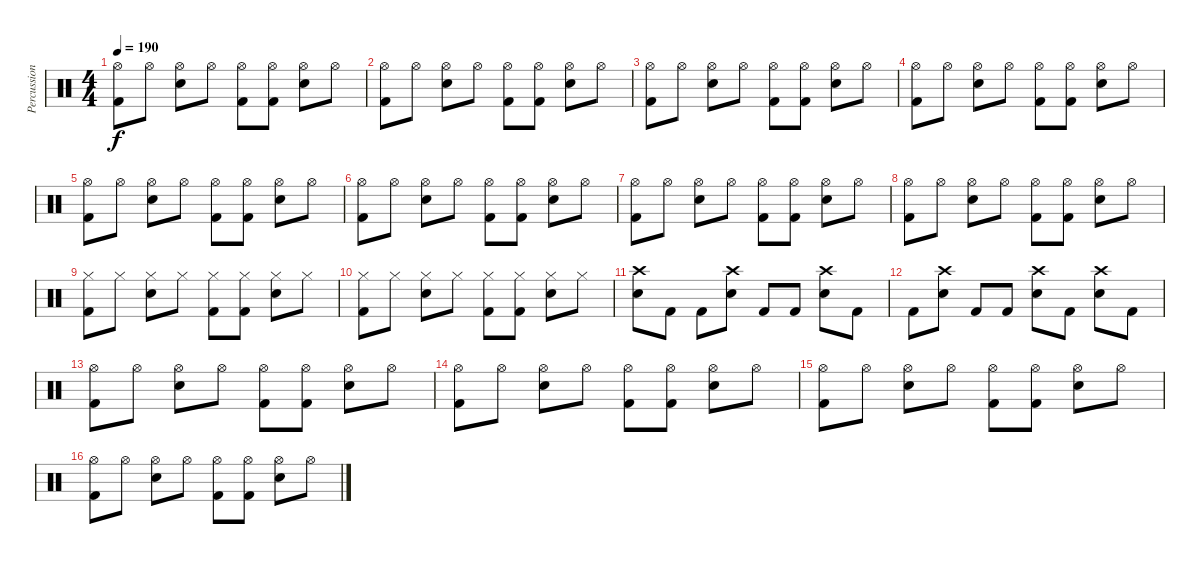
\track ("Percussion" "Percussion") {instrument percussion}
\staff {score}
\articulation defaults
\ts (4 4)
\tempo 190
\clef neutral
\ks c
("Hi-Hat (open)" "Kick (hit) 2").8{dy f} "Hi-Hat (open)".8 ("Hi-Hat (open)" "Snare (hit) 2").8 "Hi-Hat (open)".8 ("Hi-Hat (open)" "Kick (hit) 2").8 ("Hi-Hat (open)" "Kick (hit) 2").8 ("Hi-Hat (open)" "Snare (hit) 2").8 "Hi-Hat (open)".8 |
("Hi-Hat (open)" "Kick (hit) 2").8 "Hi-Hat (open)".8 ("Hi-Hat (open)" "Snare (hit) 2").8 "Hi-Hat (open)".8 ("Hi-Hat (open)" "Kick (hit) 2").8 ("Hi-Hat (open)" "Kick (hit) 2").8 ("Hi-Hat (open)" "Snare (hit) 2").8 "Hi-Hat (open)".8 |
("Hi-Hat (open)" "Kick (hit) 2").8 "Hi-Hat (open)".8 ("Hi-Hat (open)" "Snare (hit) 2").8 "Hi-Hat (open)".8 ("Hi-Hat (open)" "Kick (hit) 2").8 ("Hi-Hat (open)" "Kick (hit) 2").8 ("Hi-Hat (open)" "Snare (hit) 2").8 "Hi-Hat (open)".8 |
("Hi-Hat (open)" "Kick (hit) 2").8 "Hi-Hat (open)".8 ("Hi-Hat (open)" "Snare (hit) 2").8 "Hi-Hat (open)".8 ("Hi-Hat (open)" "Kick (hit) 2").8 ("Hi-Hat (open)" "Kick (hit) 2").8 ("Hi-Hat (open)" "Snare (hit) 2").8 "Hi-Hat (open)".8 |
("Hi-Hat (open)" "Kick (hit) 2").8 "Hi-Hat (open)".8 ("Hi-Hat (open)" "Snare (hit) 2").8 "Hi-Hat (open)".8 ("Hi-Hat (open)" "Kick (hit) 2").8 ("Hi-Hat (open)" "Kick (hit) 2").8 ("Hi-Hat (open)" "Snare (hit) 2").8 "Hi-Hat (open)".8 |
("Hi-Hat (open)" "Kick (hit) 2").8 "Hi-Hat (open)".8 ("Hi-Hat (open)" "Snare (hit) 2").8 "Hi-Hat (open)".8 ("Hi-Hat (open)" "Kick (hit) 2").8 ("Hi-Hat (open)" "Kick (hit) 2").8 ("Hi-Hat (open)" "Snare (hit) 2").8 "Hi-Hat (open)".8 |
("Hi-Hat (open)" "Kick (hit) 2").8 "Hi-Hat (open)".8 ("Hi-Hat (open)" "Snare (hit) 2").8 "Hi-Hat (open)".8 ("Hi-Hat (open)" "Kick (hit) 2").8 ("Hi-Hat (open)" "Kick (hit) 2").8 ("Hi-Hat (open)" "Snare (hit) 2").8 "Hi-Hat (open)".8 |
("Hi-Hat (open)" "Kick (hit) 2").8 "Hi-Hat (open)".8 ("Hi-Hat (open)" "Snare (hit) 2").8 "Hi-Hat (open)".8 ("Hi-Hat (open)" "Kick (hit) 2").8 ("Hi-Hat (open)" "Kick (hit) 2").8 ("Hi-Hat (open)" "Snare (hit) 2").8 "Hi-Hat (open)".8 |
("Hi-Hat (closed)" "Kick (hit) 2").8 "Hi-Hat (closed)".8 ("Hi-Hat (closed)" "Snare (hit) 2").8 "Hi-Hat (closed)".8 ("Hi-Hat (closed)" "Kick (hit) 2").8 ("Hi-Hat (closed)" "Kick (hit) 2").8 ("Hi-Hat (closed)" "Snare (hit) 2").8 "Hi-Hat (closed)".8 |
("Hi-Hat (closed)" "Kick (hit) 2").8 "Hi-Hat (closed)".8 ("Hi-Hat (closed)" "Snare (hit) 2").8 "Hi-Hat (closed)".8 ("Hi-Hat (closed)" "Kick (hit) 2").8 ("Hi-Hat (closed)" "Kick (hit) 2").8 ("Hi-Hat (closed)" "Snare (hit) 2").8 "Hi-Hat (closed)".8 |
("Crash high (hit)" "Snare (hit) 2").8 "Kick (hit) 2".8 "Kick (hit) 2".8 ("Crash high (hit)" "Snare (hit) 2").8 "Kick (hit) 2".8 "Kick (hit) 2".8 ("Crash high (hit)" "Snare (hit) 2").8 "Kick (hit) 2".8 |
"Kick (hit) 2".8 ("Crash high (hit)" "Snare (hit) 2").8 "Kick (hit) 2".8 "Kick (hit) 2".8 ("Crash high (hit)" "Snare (hit) 2").8 "Kick (hit) 2".8 ("Crash high (hit)" "Snare (hit) 2").8 "Kick (hit) 2".8 |
("Hi-Hat (open)" "Kick (hit) 2").8 "Hi-Hat (open)".8 ("Hi-Hat (open)" "Snare (hit) 2").8 "Hi-Hat (open)".8 ("Hi-Hat (open)" "Kick (hit) 2").8 ("Hi-Hat (open)" "Kick (hit) 2").8 ("Hi-Hat (open)" "Snare (hit) 2").8 "Hi-Hat (open)".8 |
("Hi-Hat (open)" "Kick (hit) 2").8 "Hi-Hat (open)".8 ("Hi-Hat (open)" "Snare (hit) 2").8 "Hi-Hat (open)".8 ("Hi-Hat (open)" "Kick (hit) 2").8 ("Hi-Hat (open)" "Kick (hit) 2").8 ("Hi-Hat (open)" "Snare (hit) 2").8 "Hi-Hat (open)".8 |
("Hi-Hat (open)" "Kick (hit) 2").8 "Hi-Hat (open)".8 ("Hi-Hat (open)" "Snare (hit) 2").8 "Hi-Hat (open)".8 ("Hi-Hat (open)" "Kick (hit) 2").8 ("Hi-Hat (open)" "Kick (hit) 2").8 ("Hi-Hat (open)" "Snare (hit) 2").8 "Hi-Hat (open)".8 |
("Hi-Hat (open)" "Kick (hit) 2").8 "Hi-Hat (open)".8 ("Hi-Hat (open)" "Snare (hit) 2").8 "Hi-Hat (open)".8 ("Hi-Hat (open)" "Kick (hit) 2").8 ("Hi-Hat (open)" "Kick (hit) 2").8 ("Hi-Hat (open)" "Snare (hit) 2").8 "Hi-Hat (open)".8
